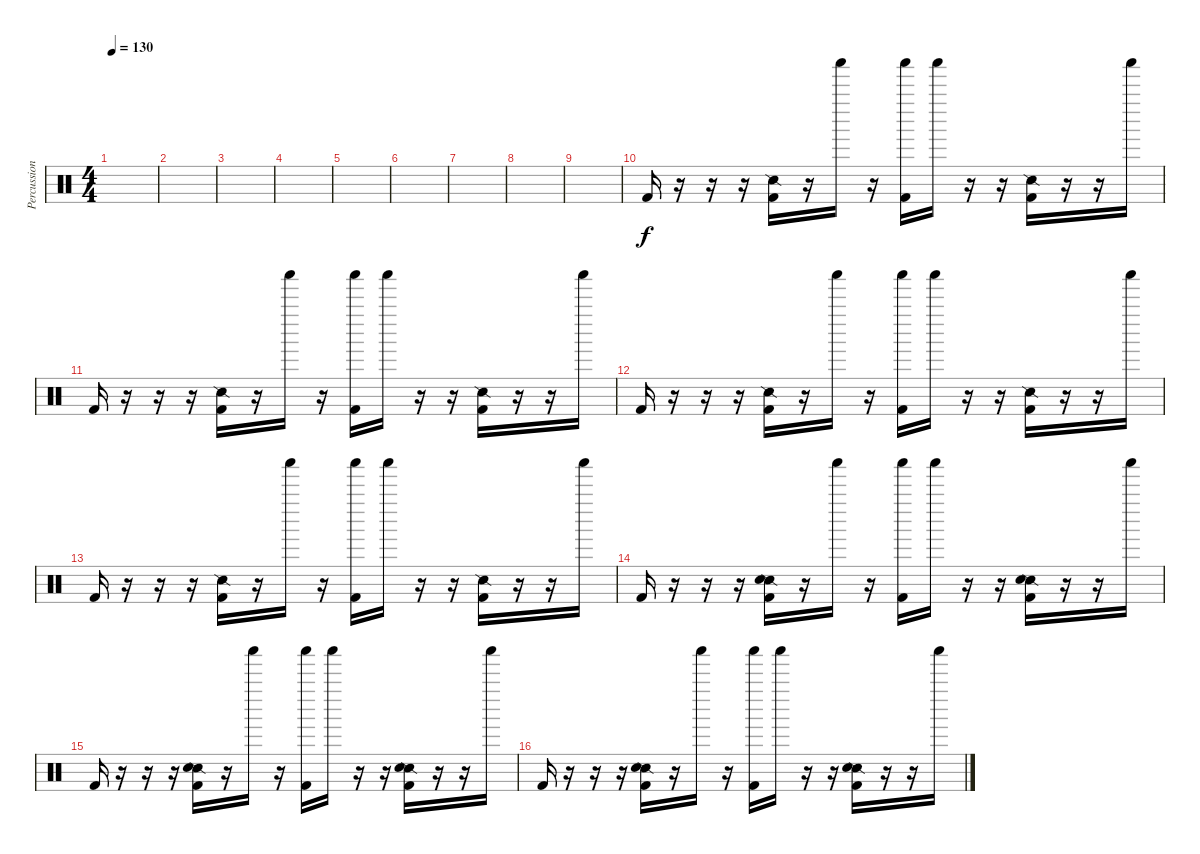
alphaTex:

\track ("Percussion" "Percussion") {instrument percussion}
\staff {score}
\articulation defaults
\ts (4 4)
\tempo 130
\clef neutral
\ks c
|
|
|
|
|
|
|
|
|
"Kick (hit) 2".16{dy f} r.16 r.16 r.16 ("Kick (hit) 2" "Snare (side stick) 2").16 r.16 "Shaker (hit)".16 r.16 ("Kick (hit) 2" "Shaker (hit)").16 "Shaker (hit)".16 r.16 r.16 ("Kick (hit) 2" "Snare (side stick) 2").16 r.16 r.16 "Shaker (hit)".16 |
"Kick (hit) 2".16 r.16 r.16 r.16 ("Kick (hit) 2" "Snare (side stick) 2").16 r.16 "Shaker (hit)".16 r.16 ("Kick (hit) 2" "Shaker (hit)").16 "Shaker (hit)".16 r.16 r.16 ("Kick (hit) 2" "Snare (side stick) 2").16 r.16 r.16 "Shaker (hit)".16 |
"Kick (hit) 2".16 r.16 r.16 r.16 ("Kick (hit) 2" "Snare (side stick) 2").16 r.16 "Shaker (hit)".16 r.16 ("Kick (hit) 2" "Shaker (hit)").16 "Shaker (hit)".16 r.16 r.16 ("Kick (hit) 2" "Snare (side stick) 2").16 r.16 r.16 "Shaker (hit)".16 |
"Kick (hit) 2".16 r.16 r.16 r.16 ("Kick (hit) 2" "Snare (side stick) 2").16 r.16 "Shaker (hit)".16 r.16 ("Kick (hit) 2" "Shaker (hit)").16 "Shaker (hit)".16 r.16 r.16 ("Kick (hit) 2" "Snare (side stick) 2").16 r.16 r.16 "Shaker (hit)".16 |
"Kick (hit) 2".16 r.16 r.16 r.16 ("Kick (hit) 2" "Snare (side stick) 2" "Electric Snare (hit)").16 r.16 "Shaker (hit)".16 r.16 ("Kick (hit) 2" "Shaker (hit)").16 "Shaker (hit)".16 r.16 r.16 ("Kick (hit) 2" "Snare (side stick) 2" "Electric Snare (hit)").16 r.16 r.16 "Shaker (hit)".16 |
"Kick (hit) 2".16 r.16 r.16 r.16 ("Kick (hit) 2" "Snare (side stick) 2" "Electric Snare (hit)").16 r.16 "Shaker (hit)".16 r.16 ("Kick (hit) 2" "Shaker (hit)").16 "Shaker (hit)".16 r.16 r.16 ("Kick (hit) 2" "Snare (side stick) 2" "Electric Snare (hit)").16 r.16 r.16 "Shaker (hit)".16 |
"Kick (hit) 2".16 r.16 r.16 r.16 ("Kick (hit) 2" "Snare (side stick) 2" "Electric Snare (hit)").16 r.16 "Shaker (hit)".16 r.16 ("Kick (hit) 2" "Shaker (hit)").16 "Shaker (hit)".16 r.16 r.16 ("Kick (hit) 2" "Snare (side stick) 2" "Electric Snare (hit)").16 r.16 r.16 "Shaker (hit)".16
